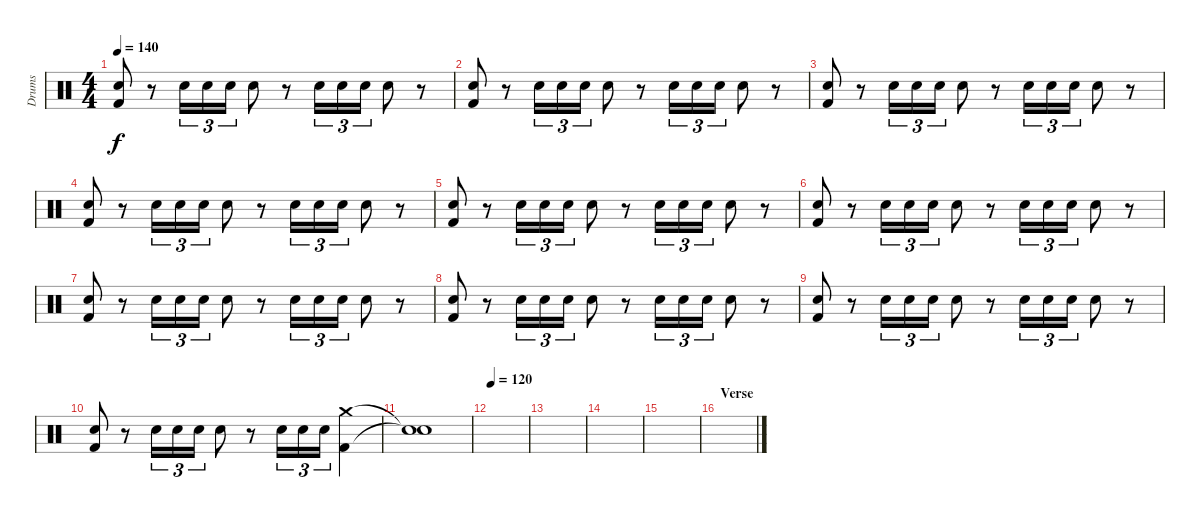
\track ("Drums" "Drums") {instrument percussion}
\staff {score}
\articulation defaults
\ts (4 4)
\tempo 140
\clef neutral
\ks c
("Electric Snare (hit)" "Kick (hit) 2").8{dy f} r.8 "Electric Snare (hit)".16{tu (3 2)} "Electric Snare (hit)".16{tu (3 2)} "Electric Snare (hit)".16{tu (3 2)} "Electric Snare (hit)".8 r.8 "Electric Snare (hit)".16{tu (3 2)} "Electric Snare (hit)".16{tu (3 2)} "Electric Snare (hit)".16{tu (3 2)} "Electric Snare (hit)".8 r.8 |
("Electric Snare (hit)" "Kick (hit) 2").8 r.8 "Electric Snare (hit)".16{tu (3 2)} "Electric Snare (hit)".16{tu (3 2)} "Electric Snare (hit)".16{tu (3 2)} "Electric Snare (hit)".8 r.8 "Electric Snare (hit)".16{tu (3 2)} "Electric Snare (hit)".16{tu (3 2)} "Electric Snare (hit)".16{tu (3 2)} "Electric Snare (hit)".8 r.8 |
("Electric Snare (hit)" "Kick (hit) 2").8 r.8 "Electric Snare (hit)".16{tu (3 2)} "Electric Snare (hit)".16{tu (3 2)} "Electric Snare (hit)".16{tu (3 2)} "Electric Snare (hit)".8 r.8 "Electric Snare (hit)".16{tu (3 2)} "Electric Snare (hit)".16{tu (3 2)} "Electric Snare (hit)".16{tu (3 2)} "Electric Snare (hit)".8 r.8 |
("Electric Snare (hit)" "Kick (hit) 2").8 r.8 "Electric Snare (hit)".16{tu (3 2)} "Electric Snare (hit)".16{tu (3 2)} "Electric Snare (hit)".16{tu (3 2)} "Electric Snare (hit)".8 r.8 "Electric Snare (hit)".16{tu (3 2)} "Electric Snare (hit)".16{tu (3 2)} "Electric Snare (hit)".16{tu (3 2)} "Electric Snare (hit)".8 r.8 |
("Electric Snare (hit)" "Kick (hit) 2").8 r.8 "Electric Snare (hit)".16{tu (3 2)} "Electric Snare (hit)".16{tu (3 2)} "Electric Snare (hit)".16{tu (3 2)} "Electric Snare (hit)".8 r.8 "Electric Snare (hit)".16{tu (3 2)} "Electric Snare (hit)".16{tu (3 2)} "Electric Snare (hit)".16{tu (3 2)} "Electric Snare (hit)".8 r.8 |
("Electric Snare (hit)" "Kick (hit) 2").8 r.8 "Electric Snare (hit)".16{tu (3 2)} "Electric Snare (hit)".16{tu (3 2)} "Electric Snare (hit)".16{tu (3 2)} "Electric Snare (hit)".8 r.8 "Electric Snare (hit)".16{tu (3 2)} "Electric Snare (hit)".16{tu (3 2)} "Electric Snare (hit)".16{tu (3 2)} "Electric Snare (hit)".8 r.8 |
("Electric Snare (hit)" "Kick (hit) 2").8 r.8 "Electric Snare (hit)".16{tu (3 2)} "Electric Snare (hit)".16{tu (3 2)} "Electric Snare (hit)".16{tu (3 2)} "Electric Snare (hit)".8 r.8 "Electric Snare (hit)".16{tu (3 2)} "Electric Snare (hit)".16{tu (3 2)} "Electric Snare (hit)".16{tu (3 2)} "Electric Snare (hit)".8 r.8 |
("Electric Snare (hit)" "Kick (hit) 2").8 r.8 "Electric Snare (hit)".16{tu (3 2)} "Electric Snare (hit)".16{tu (3 2)} "Electric Snare (hit)".16{tu (3 2)} "Electric Snare (hit)".8 r.8 "Electric Snare (hit)".16{tu (3 2)} "Electric Snare (hit)".16{tu (3 2)} "Electric Snare (hit)".16{tu (3 2)} "Electric Snare (hit)".8 r.8 |
("Electric Snare (hit)" "Kick (hit) 2").8 r.8 "Electric Snare (hit)".16{tu (3 2)} "Electric Snare (hit)".16{tu (3 2)} "Electric Snare (hit)".16{tu (3 2)} "Electric Snare (hit)".8 r.8 "Electric Snare (hit)".16{tu (3 2)} "Electric Snare (hit)".16{tu (3 2)} "Electric Snare (hit)".16{tu (3 2)} "Electric Snare (hit)".8 r.8 |
("Electric Snare (hit)" "Kick (hit) 2").8 r.8 "Electric Snare (hit)".16{tu (3 2)} "Electric Snare (hit)".16{tu (3 2)} "Electric Snare (hit)".16{tu (3 2)} "Electric Snare (hit)".8 r.8 "Electric Snare (hit)".16{tu (3 2)} "Electric Snare (hit)".16{tu (3 2)} "Electric Snare (hit)".16{tu (3 2)} ("Crash medium (hit)" "Kick (hit) 2").4 |
("Snare (hit)"{t} "Snare (hit)"{t}).1 |
\tempo 120
|
|
|
|
\section ("" "Verse")
